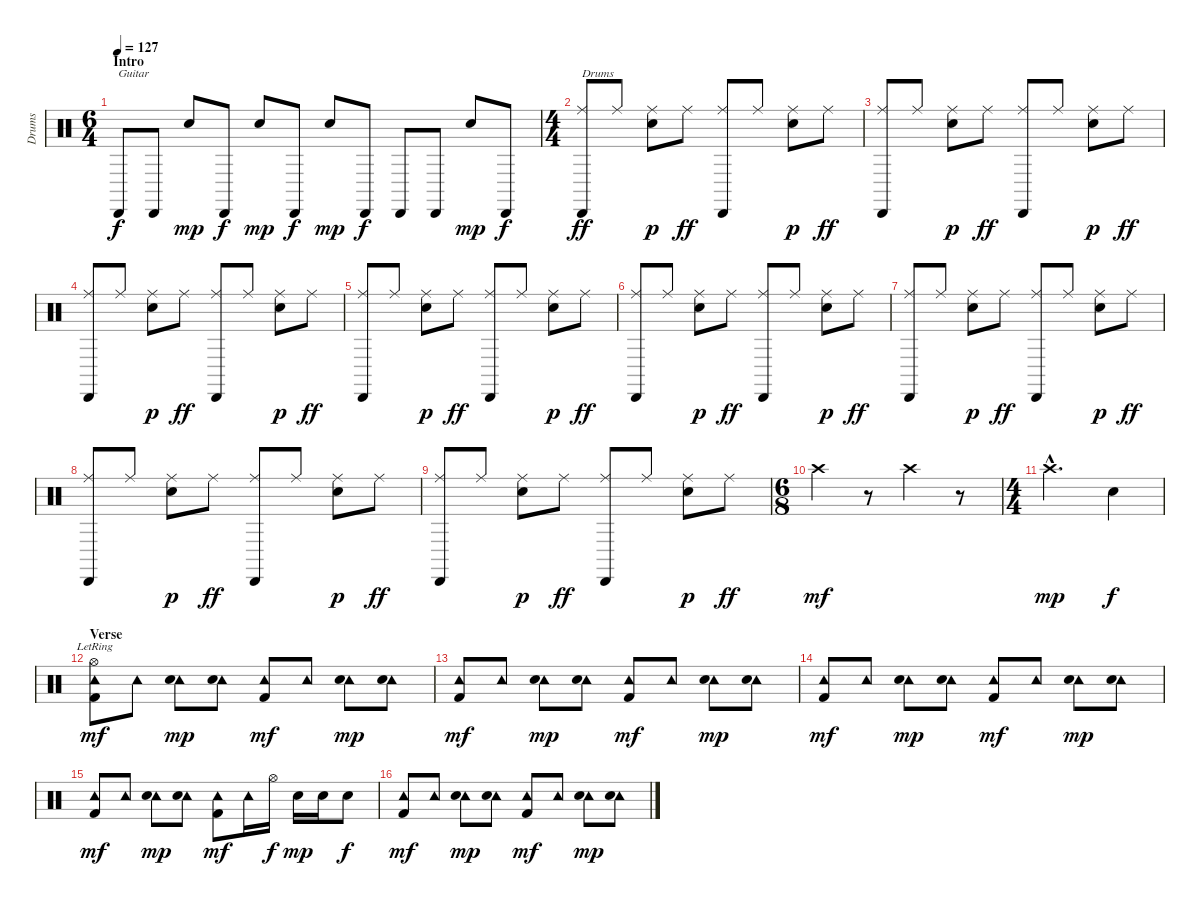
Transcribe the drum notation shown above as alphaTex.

\track ("Drums" "Drums") {instrument percussion}
\staff {score}
\articulation defaults
\ts (6 4)
\section ("" "Intro")
\tempo 127
\clef neutral
\ks c "Cabasa (hit)".8{txt "Guitar" dy f} "Cabasa (hit)".8 "Electric Snare (hit)".8{dy mp} "Cabasa (hit)".8{dy f} "Electric Snare (hit)".8{dy mp} "Cabasa (hit)".8{dy f} "Electric Snare (hit)".8{dy mp} "Cabasa (hit)".8{dy f} "Cabasa (hit)".8 "Cabasa (hit)".8 "Electric Snare (hit)".8{dy mp} "Cabasa (hit)".8{dy f}
|
\ts (4 4)
("Ride (middle)" "Cabasa (hit)").8{txt "Drums" dy ff} "Ride (middle)".8 ("Ride (middle)" "Electric Snare (hit)").8{dy p} "Ride (middle)".8{dy ff} ("Ride (middle)" "Cabasa (hit)").8 "Ride (middle)".8 ("Ride (middle)" "Electric Snare (hit)").8{dy p} "Ride (middle)".8{dy ff} |
("Ride (middle)" "Cabasa (hit)").8 "Ride (middle)".8 ("Ride (middle)" "Electric Snare (hit)").8{dy p} "Ride (middle)".8{dy ff} ("Ride (middle)" "Cabasa (hit)").8 "Ride (middle)".8 ("Ride (middle)" "Electric Snare (hit)").8{dy p} "Ride (middle)".8{dy ff} |
("Ride (middle)" "Cabasa (hit)").8 "Ride (middle)".8 ("Ride (middle)" "Electric Snare (hit)").8{dy p} "Ride (middle)".8{dy ff} ("Ride (middle)" "Cabasa (hit)").8 "Ride (middle)".8 ("Ride (middle)" "Electric Snare (hit)").8{dy p} "Ride (middle)".8{dy ff} |
("Ride (middle)" "Cabasa (hit)").8 "Ride (middle)".8 ("Ride (middle)" "Electric Snare (hit)").8{dy p} "Ride (middle)".8{dy ff} ("Ride (middle)" "Cabasa (hit)").8 "Ride (middle)".8 ("Ride (middle)" "Electric Snare (hit)").8{dy p} "Ride (middle)".8{dy ff} |
("Ride (middle)" "Cabasa (hit)").8 "Ride (middle)".8 ("Ride (middle)" "Electric Snare (hit)").8{dy p} "Ride (middle)".8{dy ff} ("Ride (middle)" "Cabasa (hit)").8 "Ride (middle)".8 ("Ride (middle)" "Electric Snare (hit)").8{dy p} "Ride (middle)".8{dy ff} |
("Ride (middle)" "Cabasa (hit)").8 "Ride (middle)".8 ("Ride (middle)" "Electric Snare (hit)").8{dy p} "Ride (middle)".8{dy ff} ("Ride (middle)" "Cabasa (hit)").8 "Ride (middle)".8 ("Ride (middle)" "Electric Snare (hit)").8{dy p} "Ride (middle)".8{dy ff} |
("Ride (middle)" "Cabasa (hit)").8 "Ride (middle)".8 ("Ride (middle)" "Electric Snare (hit)").8{dy p} "Ride (middle)".8{dy ff} ("Ride (middle)" "Cabasa (hit)").8 "Ride (middle)".8 ("Ride (middle)" "Electric Snare (hit)").8{dy p} "Ride (middle)".8{dy ff} |
("Ride (middle)" "Cabasa (hit)").8 "Ride (middle)".8 ("Ride (middle)" "Electric Snare (hit)").8{dy p} "Ride (middle)".8{dy ff} ("Ride (middle)" "Cabasa (hit)").8 "Ride (middle)".8 ("Ride (middle)" "Electric Snare (hit)").8{dy p} "Ride (middle)".8{dy ff} |
\ts (6 8)
"Crash high (hit)".4{dy mf} r.8 "Crash high (hit)".4 r.8 |
\ts (4 4)
"Crash high (hit)"{hac}.2{d dy mp} "Snare (hit) 2".4{dy f} |
\section ("" "Verse")
("Hi-Hat (open)"{lr} "Tambourine (hit)" "Kick (hit) 2").8{dy mf} "Tambourine (hit)".8 ("Tambourine (hit)" "Electric Snare (hit)").8{dy mp} ("Tambourine (hit)" "Electric Snare (hit)").8 ("Tambourine (hit)" "Kick (hit) 2").8{dy mf} "Tambourine (hit)".8 ("Tambourine (hit)" "Electric Snare (hit)").8{dy mp} ("Tambourine (hit)" "Electric Snare (hit)").8 |
("Tambourine (hit)" "Kick (hit) 2").8{dy mf} "Tambourine (hit)".8 ("Tambourine (hit)" "Electric Snare (hit)").8{dy mp} ("Tambourine (hit)" "Electric Snare (hit)").8 ("Tambourine (hit)" "Kick (hit) 2").8{dy mf} "Tambourine (hit)".8 ("Tambourine (hit)" "Electric Snare (hit)").8{dy mp} ("Tambourine (hit)" "Electric Snare (hit)").8 |
("Tambourine (hit)" "Kick (hit) 2").8{dy mf} "Tambourine (hit)".8 ("Tambourine (hit)" "Electric Snare (hit)").8{dy mp} ("Tambourine (hit)" "Electric Snare (hit)").8 ("Tambourine (hit)" "Kick (hit) 2").8{dy mf} "Tambourine (hit)".8 ("Tambourine (hit)" "Electric Snare (hit)").8{dy mp} ("Tambourine (hit)" "Electric Snare (hit)").8 |
("Tambourine (hit)" "Kick (hit) 2").8{dy mf} "Tambourine (hit)".8 ("Tambourine (hit)" "Electric Snare (hit)").8{dy mp} ("Tambourine (hit)" "Electric Snare (hit)").8 ("Tambourine (hit)" "Kick (hit) 2").8{dy mf} "Tambourine (hit)".16 "Hi-Hat (open)".16{dy f} "Snare (hit) 2".16{dy mp} "Snare (hit) 2".16 "Electric Snare (hit)".8{dy f} |
("Tambourine (hit)" "Kick (hit) 2").8{dy mf} "Tambourine (hit)".8 ("Tambourine (hit)" "Electric Snare (hit)").8{dy mp} ("Tambourine (hit)" "Electric Snare (hit)").8 ("Tambourine (hit)" "Kick (hit) 2").8{dy mf} "Tambourine (hit)".8 ("Tambourine (hit)" "Electric Snare (hit)").8{dy mp} ("Tambourine (hit)" "Electric Snare (hit)").8
